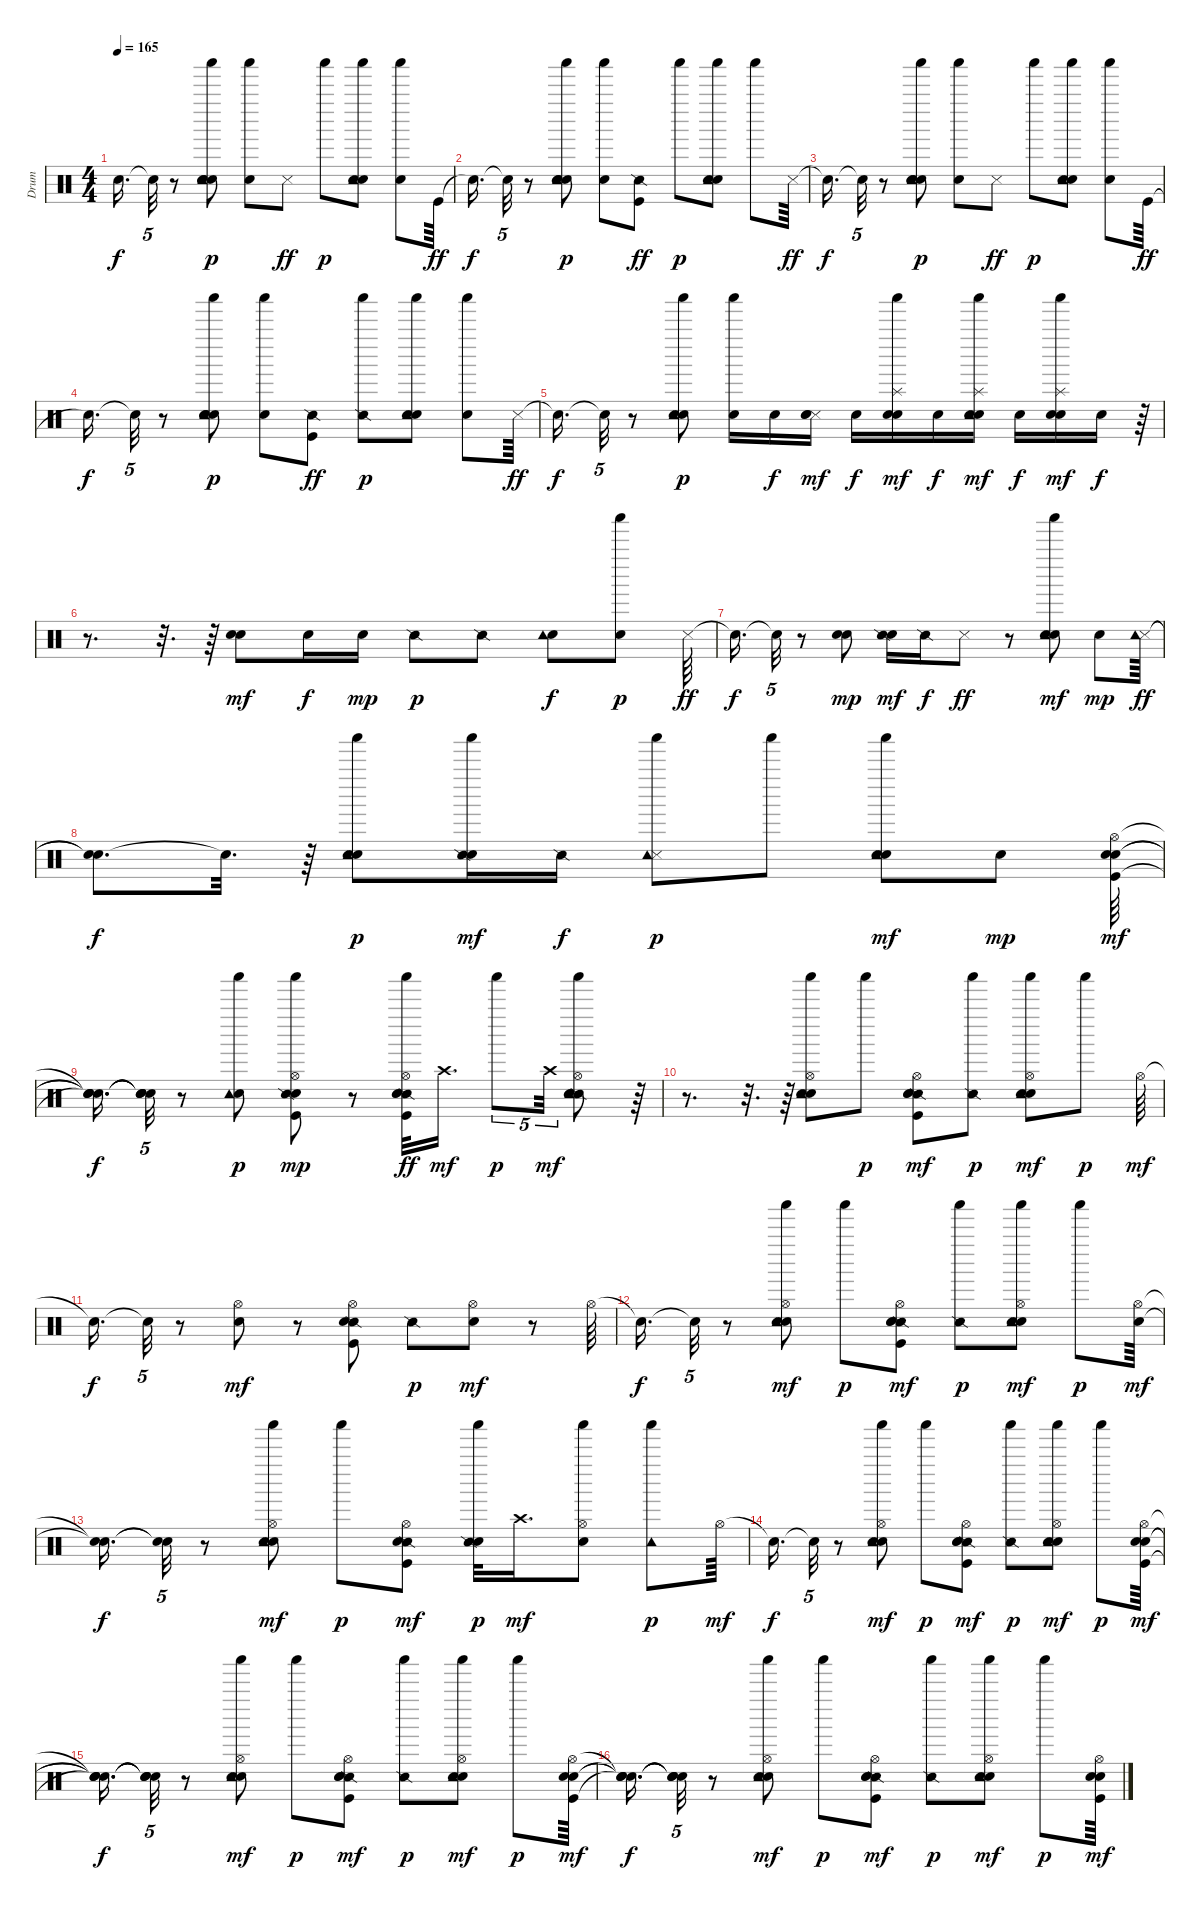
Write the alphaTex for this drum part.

\track ("Drum" "Drum") {instrument percussion}
\staff {score}
\articulation defaults
\ts (4 4)
\tempo 165
\clef neutral
\ks c "Snare (hit)"{t}.16{d dy f} "Snare (hit)"{t}.32{tu (5 4)}
r.8 ("Hand Clap (hit)" "Metronome (bell)" "Tambourine (hit)" "Electric Snare (hit)" "Shaker (hit)").8{dy p} ("Hand Clap (hit)" "Shaker (hit)").8 "Metronome (hit)".8{dy ff} "Shaker (hit)".8{dy p} ("Hand Clap (hit)" "Tambourine (hit)" "Electric Snare (hit)" "Shaker (hit)").8 ("Metronome (bell)" "Shaker (hit)").8 "Kick (hit)".64{dy ff} |
"Snare (hit)"{t}.16{d dy f} "Snare (hit)"{t}.32{tu (5 4)} r.8 ("Hand Clap (hit)" "Metronome (bell)" "Tambourine (hit)" "Electric Snare (hit)" "Shaker (hit)").8{dy p} ("Hand Clap (hit)" "Shaker (hit)").8 ("Snare (side stick) 2" "Kick (hit)").8{dy ff} "Shaker (hit)".8{dy p} ("Hand Clap (hit)" "Tambourine (hit)" "Electric Snare (hit)" "Shaker (hit)").8 "Shaker (hit)".8 "Metronome (hit)".64{dy ff} |
"Snare (hit)"{t}.16{d dy f} "Snare (hit)"{t}.32{tu (5 4)} r.8 ("Hand Clap (hit)" "Metronome (bell)" "Tambourine (hit)" "Electric Snare (hit)" "Shaker (hit)").8{dy p} ("Hand Clap (hit)" "Shaker (hit)").8 "Metronome (hit)".8{dy ff} "Shaker (hit)".8{dy p} ("Hand Clap (hit)" "Tambourine (hit)" "Electric Snare (hit)" "Shaker (hit)").8 ("Metronome (bell)" "Shaker (hit)").8 "Kick (hit)".64{dy ff} |
"Snare (hit)"{t}.16{d dy f} "Snare (hit)"{t}.32{tu (5 4)} r.8 ("Hand Clap (hit)" "Metronome (bell)" "Tambourine (hit)" "Electric Snare (hit)" "Shaker (hit)").8{dy p} ("Hand Clap (hit)" "Shaker (hit)").8 ("Snare (side stick) 2" "Kick (hit)").8{dy ff} ("Snare (side stick) 2" "Shaker (hit)").8{dy p} ("Hand Clap (hit)" "Tambourine (hit)" "Electric Snare (hit)" "Shaker (hit)").8 ("Metronome (bell)" "Shaker (hit)").8 "Metronome (hit)".64{dy ff} |
"Snare (hit)"{t}.16{d dy f} "Snare (hit)"{t}.32{tu (5 4)} r.8 ("Hand Clap (hit)" "Tambourine (hit)" "Electric Snare (hit)" "Shaker (hit)").8{dy p} ("Shaker (hit)" "Electric Snare (hit)").16 "Electric Snare (hit)".16{dy f} ("Metronome (hit)" "Electric Snare (hit)" "Hand Clap (hit)").16{dy mf} "Electric Snare (hit)".16{dy f} ("Shaker (hit)" "Electric Snare (hit)" "Hand Clap (hit)" "Splash (hit)").16{dy mf} "Electric Snare (hit)".16{dy f} ("Hand Clap (hit)" "Tambourine (hit)" "Electric Snare (hit)" "Shaker (hit)" "Splash (hit)").16{dy mf} "Electric Snare (hit)".16{dy f} ("Shaker (hit)" "Electric Snare (hit)" "Hand Clap (hit)" "Splash (hit)").16{dy mf} "Electric Snare (hit)".16{dy f} r.64 |
r.8{d} r.32{d} r.64 ("Metronome (bell)" "Hand Clap (hit)").8{dy mf} "Hand Clap (hit)".16{dy f} "Metronome (bell)".16{dy mp} "Snare (side stick) 2".8{dy p} "Snare (side stick) 2".8 ("Hand Clap (hit)" "Tambourine (hit)").8{dy f} ("Metronome (bell)" "Shaker (hit)").8{dy p} "Metronome (hit)".64{dy ff} |
"Snare (hit)"{t}.16{d dy f} "Snare (hit)"{t}.32{tu (5 4)} r.8 ("Hand Clap (hit)" "Metronome (bell)").8{dy mp} ("Hand Clap (hit)" "Snare (side stick) 2").16{dy mf} "Snare (side stick) 2".16{dy f} "Metronome (hit)".8{dy ff} r.8 ("Hand Clap (hit)" "Tambourine (hit)" "Shaker (hit)" "Electric Snare (hit)").8{dy mf} "Metronome (bell)".8{dy mp} ("Metronome (hit)" "Tambourine (hit)").64{dy ff} |
("Snare (hit)"{t} "Snare (hit)"{t}).8{d dy f} "Snare (hit)"{t}.32{d} r.64 ("Hand Clap (hit)" "Metronome (bell)" "Tambourine (hit)" "Shaker (hit)").8{dy p} ("Hand Clap (hit)" "Shaker (hit)" "Snare (side stick) 2").16{dy mf} "Snare (side stick) 2".16{dy f} ("Metronome (hit)" "Shaker (hit)" "Tambourine (hit)").8{dy p} "Shaker (hit)".8 ("Hand Clap (hit)" "Tambourine (hit)" "Shaker (hit)" "Electric Snare (hit)").8{dy mf} "Metronome (bell)".8{dy mp} ("Kick (hit)" "Hand Clap (hit)" "Electric Snare (hit)" "Hi-Hat (open)").64{dy mf} |
("Snare (hit)"{t} "Snare (hit)"{t} "Snare (hit)"{t} "Snare (hit)"{t}).16{d dy f} ("Snare (hit)"{t} "Snare (hit)"{t} "Snare (hit)"{t} "Snare (hit)"{t}).32{tu (5 4)} r.8 ("Hand Clap (hit)" "Shaker (hit)" "Tambourine (hit)").8{dy p} ("Shaker (hit)" "Hi-Hat (open)" "Electric Snare (hit)" "Kick (hit)" "Snare (side stick) 2").8{dy mp} r.8 ("Shaker (hit)" "Snare (side stick) 2" "Hi-Hat (open)" "Electric Snare (hit)" "Hand Clap (hit)" "Kick (hit)").32{dy ff} "Crash high (hit)".16{d dy mf} "Shaker (hit)".8{tu (5 4) dy p} "Crash high (hit)".32{tu (5 4) dy mf} ("Shaker (hit)" "Snare (side stick) 2" "Hi-Hat (open)" "Electric Snare (hit)" "Tambourine (hit)" "Hand Clap (hit)").8 r.64 |
r.8{d} r.32{d} r.64 ("Hand Clap (hit)" "Electric Snare (hit)" "Shaker (hit)" "Tambourine (hit)" "Hi-Hat (open)").8 "Shaker (hit)".8{dy p} ("Snare (side stick) 2" "Kick (hit)" "Hand Clap (hit)" "Electric Snare (hit)" "Hi-Hat (open)").8{dy mf} ("Snare (side stick) 2" "Shaker (hit)").8{dy p} ("Hand Clap (hit)" "Tambourine (hit)" "Electric Snare (hit)" "Shaker (hit)" "Hi-Hat (open)").8{dy mf} "Shaker (hit)".8{dy p} "Hi-Hat (open)".64{dy mf} |
"Snare (hit)"{t}.16{d dy f} "Snare (hit)"{t}.32{tu (5 4)} r.8 ("Electric Snare (hit)" "Hi-Hat (open)").8{dy mf} r.8 ("Snare (side stick) 2" "Kick (hit)" "Electric Snare (hit)" "Hi-Hat (open)").8 "Snare (side stick) 2".8{dy p} ("Electric Snare (hit)" "Hi-Hat (open)").8{dy mf} r.8 "Hi-Hat (open)".64 |
"Snare (hit)"{t}.16{d dy f} "Snare (hit)"{t}.32{tu (5 4)} r.8 ("Hand Clap (hit)" "Electric Snare (hit)" "Shaker (hit)" "Tambourine (hit)" "Hi-Hat (open)").8{dy mf} "Shaker (hit)".8{dy p} ("Snare (side stick) 2" "Kick (hit)" "Hand Clap (hit)" "Electric Snare (hit)" "Hi-Hat (open)").8{dy mf} ("Snare (side stick) 2" "Shaker (hit)").8{dy p} ("Hand Clap (hit)" "Tambourine (hit)" "Electric Snare (hit)" "Shaker (hit)" "Hi-Hat (open)").8{dy mf} "Shaker (hit)".8{dy p} ("Hand Clap (hit)" "Hi-Hat (open)").64{dy mf} |
("Snare (hit)"{t} "Snare (hit)"{t}).16{d dy f} ("Snare (hit)"{t} "Snare (hit)"{t}).32{tu (5 4)} r.8 ("Shaker (hit)" "Hand Clap (hit)" "Tambourine (hit)" "Electric Snare (hit)" "Hi-Hat (open)").8{dy mf} "Shaker (hit)".8{dy p} ("Snare (side stick) 2" "Kick (hit)" "Electric Snare (hit)" "Hi-Hat (open)").8{dy mf} ("Shaker (hit)" "Hand Clap (hit)" "Snare (side stick) 2").32{dy p} "Crash high (hit)".16{d dy mf} ("Shaker (hit)" "Electric Snare (hit)" "Hi-Hat (open)").8 ("Shaker (hit)" "Tambourine (hit)").8{dy p} "Hi-Hat (open)".64{dy mf} |
"Snare (hit)"{t}.16{d dy f} "Snare (hit)"{t}.32{tu (5 4)} r.8 ("Hand Clap (hit)" "Electric Snare (hit)" "Shaker (hit)" "Tambourine (hit)" "Hi-Hat (open)").8{dy mf} "Shaker (hit)".8{dy p} ("Snare (side stick) 2" "Kick (hit)" "Hand Clap (hit)" "Electric Snare (hit)" "Hi-Hat (open)").8{dy mf} ("Snare (side stick) 2" "Shaker (hit)").8{dy p} ("Hand Clap (hit)" "Tambourine (hit)" "Electric Snare (hit)" "Shaker (hit)" "Hi-Hat (open)").8{dy mf} "Shaker (hit)".8{dy p} ("Kick (hit)" "Hand Clap (hit)" "Electric Snare (hit)" "Hi-Hat (open)").64{dy mf} |
("Snare (hit)"{t} "Snare (hit)"{t} "Snare (hit)"{t} "Snare (hit)"{t}).16{d dy f} ("Snare (hit)"{t} "Snare (hit)"{t} "Snare (hit)"{t} "Snare (hit)"{t}).32{tu (5 4)} r.8 ("Hand Clap (hit)" "Electric Snare (hit)" "Shaker (hit)" "Tambourine (hit)" "Hi-Hat (open)").8{dy mf} "Shaker (hit)".8{dy p} ("Snare (side stick) 2" "Kick (hit)" "Hand Clap (hit)" "Electric Snare (hit)" "Hi-Hat (open)").8{dy mf} ("Snare (side stick) 2" "Shaker (hit)").8{dy p} ("Hand Clap (hit)" "Tambourine (hit)" "Electric Snare (hit)" "Shaker (hit)" "Hi-Hat (open)").8{dy mf} "Shaker (hit)".8{dy p} ("Kick (hit)" "Hand Clap (hit)" "Electric Snare (hit)" "Hi-Hat (open)").64{dy mf} |
("Snare (hit)"{t} "Snare (hit)"{t} "Snare (hit)"{t} "Snare (hit)"{t}).16{d dy f} ("Snare (hit)"{t} "Snare (hit)"{t} "Snare (hit)"{t} "Snare (hit)"{t}).32{tu (5 4)} r.8 ("Hand Clap (hit)" "Electric Snare (hit)" "Shaker (hit)" "Tambourine (hit)" "Hi-Hat (open)").8{dy mf} "Shaker (hit)".8{dy p} ("Snare (side stick) 2" "Kick (hit)" "Hand Clap (hit)" "Electric Snare (hit)" "Hi-Hat (open)").8{dy mf} ("Snare (side stick) 2" "Shaker (hit)").8{dy p} ("Hand Clap (hit)" "Tambourine (hit)" "Electric Snare (hit)" "Shaker (hit)" "Hi-Hat (open)").8{dy mf} "Shaker (hit)".8{dy p} ("Kick (hit)" "Hand Clap (hit)" "Electric Snare (hit)" "Hi-Hat (open)").64{dy mf}
